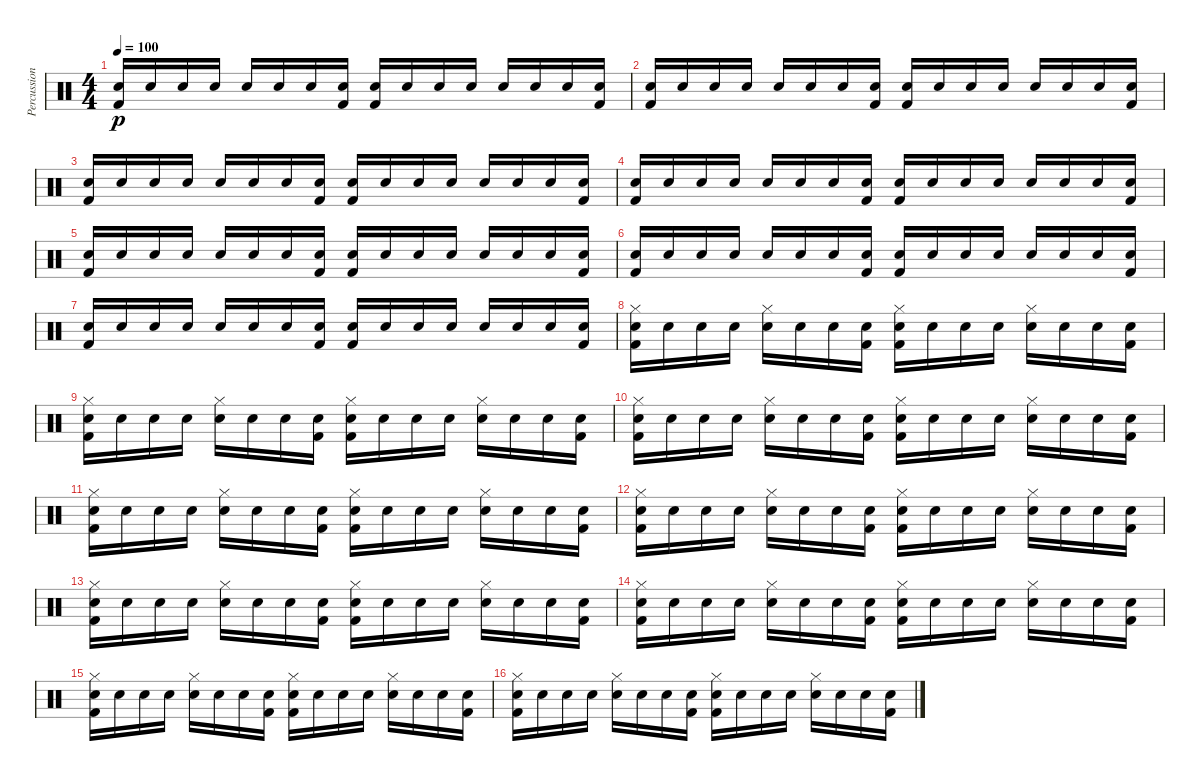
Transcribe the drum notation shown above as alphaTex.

\track ("Percussion" "Percussion") {instrument percussion}
\staff {score}
\articulation defaults
\ts (4 4)
\tempo 100
\clef neutral
\ks c
("Snare (hit) 2" "Kick (hit) 2").16{dy p} "Snare (hit) 2".16 "Snare (hit) 2".16 "Snare (hit) 2".16 "Snare (hit) 2".16 "Snare (hit) 2".16 "Snare (hit) 2".16 ("Snare (hit) 2" "Kick (hit) 2").16 ("Snare (hit) 2" "Kick (hit) 2").16 "Snare (hit) 2".16 "Snare (hit) 2".16 "Snare (hit) 2".16 "Snare (hit) 2".16 "Snare (hit) 2".16 "Snare (hit) 2".16 ("Snare (hit) 2" "Kick (hit) 2").16 |
("Snare (hit) 2" "Kick (hit) 2").16 "Snare (hit) 2".16 "Snare (hit) 2".16 "Snare (hit) 2".16 "Snare (hit) 2".16 "Snare (hit) 2".16 "Snare (hit) 2".16 ("Snare (hit) 2" "Kick (hit) 2").16 ("Snare (hit) 2" "Kick (hit) 2").16 "Snare (hit) 2".16 "Snare (hit) 2".16 "Snare (hit) 2".16 "Snare (hit) 2".16 "Snare (hit) 2".16 "Snare (hit) 2".16 ("Snare (hit) 2" "Kick (hit) 2").16 |
("Snare (hit) 2" "Kick (hit) 2").16 "Snare (hit) 2".16 "Snare (hit) 2".16 "Snare (hit) 2".16 "Snare (hit) 2".16 "Snare (hit) 2".16 "Snare (hit) 2".16 ("Snare (hit) 2" "Kick (hit) 2").16 ("Snare (hit) 2" "Kick (hit) 2").16 "Snare (hit) 2".16 "Snare (hit) 2".16 "Snare (hit) 2".16 "Snare (hit) 2".16 "Snare (hit) 2".16 "Snare (hit) 2".16 ("Snare (hit) 2" "Kick (hit) 2").16 |
("Snare (hit) 2" "Kick (hit) 2").16 "Snare (hit) 2".16 "Snare (hit) 2".16 "Snare (hit) 2".16 "Snare (hit) 2".16 "Snare (hit) 2".16 "Snare (hit) 2".16 ("Snare (hit) 2" "Kick (hit) 2").16 ("Snare (hit) 2" "Kick (hit) 2").16 "Snare (hit) 2".16 "Snare (hit) 2".16 "Snare (hit) 2".16 "Snare (hit) 2".16 "Snare (hit) 2".16 "Snare (hit) 2".16 ("Snare (hit) 2" "Kick (hit) 2").16 |
("Snare (hit) 2" "Kick (hit) 2").16 "Snare (hit) 2".16 "Snare (hit) 2".16 "Snare (hit) 2".16 "Snare (hit) 2".16 "Snare (hit) 2".16 "Snare (hit) 2".16 ("Snare (hit) 2" "Kick (hit) 2").16 ("Snare (hit) 2" "Kick (hit) 2").16 "Snare (hit) 2".16 "Snare (hit) 2".16 "Snare (hit) 2".16 "Snare (hit) 2".16 "Snare (hit) 2".16 "Snare (hit) 2".16 ("Snare (hit) 2" "Kick (hit) 2").16 |
("Snare (hit) 2" "Kick (hit) 2").16 "Snare (hit) 2".16 "Snare (hit) 2".16 "Snare (hit) 2".16 "Snare (hit) 2".16 "Snare (hit) 2".16 "Snare (hit) 2".16 ("Snare (hit) 2" "Kick (hit) 2").16 ("Snare (hit) 2" "Kick (hit) 2").16 "Snare (hit) 2".16 "Snare (hit) 2".16 "Snare (hit) 2".16 "Snare (hit) 2".16 "Snare (hit) 2".16 "Snare (hit) 2".16 ("Snare (hit) 2" "Kick (hit) 2").16 |
("Snare (hit) 2" "Kick (hit) 2").16 "Snare (hit) 2".16 "Snare (hit) 2".16 "Snare (hit) 2".16 "Snare (hit) 2".16 "Snare (hit) 2".16 "Snare (hit) 2".16 ("Snare (hit) 2" "Kick (hit) 2").16 ("Snare (hit) 2" "Kick (hit) 2").16 "Snare (hit) 2".16 "Snare (hit) 2".16 "Snare (hit) 2".16 "Snare (hit) 2".16 "Snare (hit) 2".16 "Snare (hit) 2".16 ("Snare (hit) 2" "Kick (hit) 2").16 |
("Hi-Hat (closed)" "Snare (hit) 2" "Kick (hit) 2").16 "Snare (hit) 2".16 "Snare (hit) 2".16 "Snare (hit) 2".16 ("Hi-Hat (closed)" "Snare (hit) 2").16 "Snare (hit) 2".16 "Snare (hit) 2".16 ("Snare (hit) 2" "Kick (hit) 2").16 ("Hi-Hat (closed)" "Snare (hit) 2" "Kick (hit) 2").16 "Snare (hit) 2".16 "Snare (hit) 2".16 "Snare (hit) 2".16 ("Hi-Hat (closed)" "Snare (hit) 2").16 "Snare (hit) 2".16 "Snare (hit) 2".16 ("Snare (hit) 2" "Kick (hit) 2").16 |
("Hi-Hat (closed)" "Snare (hit) 2" "Kick (hit) 2").16 "Snare (hit) 2".16 "Snare (hit) 2".16 "Snare (hit) 2".16 ("Hi-Hat (closed)" "Snare (hit) 2").16 "Snare (hit) 2".16 "Snare (hit) 2".16 ("Snare (hit) 2" "Kick (hit) 2").16 ("Hi-Hat (closed)" "Snare (hit) 2" "Kick (hit) 2").16 "Snare (hit) 2".16 "Snare (hit) 2".16 "Snare (hit) 2".16 ("Hi-Hat (closed)" "Snare (hit) 2").16 "Snare (hit) 2".16 "Snare (hit) 2".16 ("Snare (hit) 2" "Kick (hit) 2").16 |
("Hi-Hat (closed)" "Snare (hit) 2" "Kick (hit) 2").16 "Snare (hit) 2".16 "Snare (hit) 2".16 "Snare (hit) 2".16 ("Hi-Hat (closed)" "Snare (hit) 2").16 "Snare (hit) 2".16 "Snare (hit) 2".16 ("Snare (hit) 2" "Kick (hit) 2").16 ("Hi-Hat (closed)" "Snare (hit) 2" "Kick (hit) 2").16 "Snare (hit) 2".16 "Snare (hit) 2".16 "Snare (hit) 2".16 ("Hi-Hat (closed)" "Snare (hit) 2").16 "Snare (hit) 2".16 "Snare (hit) 2".16 ("Snare (hit) 2" "Kick (hit) 2").16 |
("Hi-Hat (closed)" "Snare (hit) 2" "Kick (hit) 2").16 "Snare (hit) 2".16 "Snare (hit) 2".16 "Snare (hit) 2".16 ("Hi-Hat (closed)" "Snare (hit) 2").16 "Snare (hit) 2".16 "Snare (hit) 2".16 ("Snare (hit) 2" "Kick (hit) 2").16 ("Hi-Hat (closed)" "Snare (hit) 2" "Kick (hit) 2").16 "Snare (hit) 2".16 "Snare (hit) 2".16 "Snare (hit) 2".16 ("Hi-Hat (closed)" "Snare (hit) 2").16 "Snare (hit) 2".16 "Snare (hit) 2".16 ("Snare (hit) 2" "Kick (hit) 2").16 |
("Hi-Hat (closed)" "Snare (hit) 2" "Kick (hit) 2").16 "Snare (hit) 2".16 "Snare (hit) 2".16 "Snare (hit) 2".16 ("Hi-Hat (closed)" "Snare (hit) 2").16 "Snare (hit) 2".16 "Snare (hit) 2".16 ("Snare (hit) 2" "Kick (hit) 2").16 ("Hi-Hat (closed)" "Snare (hit) 2" "Kick (hit) 2").16 "Snare (hit) 2".16 "Snare (hit) 2".16 "Snare (hit) 2".16 ("Hi-Hat (closed)" "Snare (hit) 2").16 "Snare (hit) 2".16 "Snare (hit) 2".16 ("Snare (hit) 2" "Kick (hit) 2").16 |
("Hi-Hat (closed)" "Snare (hit) 2" "Kick (hit) 2").16 "Snare (hit) 2".16 "Snare (hit) 2".16 "Snare (hit) 2".16 ("Hi-Hat (closed)" "Snare (hit) 2").16 "Snare (hit) 2".16 "Snare (hit) 2".16 ("Snare (hit) 2" "Kick (hit) 2").16 ("Hi-Hat (closed)" "Snare (hit) 2" "Kick (hit) 2").16 "Snare (hit) 2".16 "Snare (hit) 2".16 "Snare (hit) 2".16 ("Hi-Hat (closed)" "Snare (hit) 2").16 "Snare (hit) 2".16 "Snare (hit) 2".16 ("Snare (hit) 2" "Kick (hit) 2").16 |
("Hi-Hat (closed)" "Snare (hit) 2" "Kick (hit) 2").16 "Snare (hit) 2".16 "Snare (hit) 2".16 "Snare (hit) 2".16 ("Hi-Hat (closed)" "Snare (hit) 2").16 "Snare (hit) 2".16 "Snare (hit) 2".16 ("Snare (hit) 2" "Kick (hit) 2").16 ("Hi-Hat (closed)" "Snare (hit) 2" "Kick (hit) 2").16 "Snare (hit) 2".16 "Snare (hit) 2".16 "Snare (hit) 2".16 ("Hi-Hat (closed)" "Snare (hit) 2").16 "Snare (hit) 2".16 "Snare (hit) 2".16 ("Snare (hit) 2" "Kick (hit) 2").16 |
("Hi-Hat (closed)" "Snare (hit) 2" "Kick (hit) 2").16 "Snare (hit) 2".16 "Snare (hit) 2".16 "Snare (hit) 2".16 ("Hi-Hat (closed)" "Snare (hit) 2").16 "Snare (hit) 2".16 "Snare (hit) 2".16 ("Snare (hit) 2" "Kick (hit) 2").16 ("Hi-Hat (closed)" "Snare (hit) 2" "Kick (hit) 2").16 "Snare (hit) 2".16 "Snare (hit) 2".16 "Snare (hit) 2".16 ("Hi-Hat (closed)" "Snare (hit) 2").16 "Snare (hit) 2".16 "Snare (hit) 2".16 ("Snare (hit) 2" "Kick (hit) 2").16 |
("Hi-Hat (closed)" "Snare (hit) 2" "Kick (hit) 2").16 "Snare (hit) 2".16 "Snare (hit) 2".16 "Snare (hit) 2".16 ("Hi-Hat (closed)" "Snare (hit) 2").16 "Snare (hit) 2".16 "Snare (hit) 2".16 ("Snare (hit) 2" "Kick (hit) 2").16 ("Hi-Hat (closed)" "Snare (hit) 2" "Kick (hit) 2").16 "Snare (hit) 2".16 "Snare (hit) 2".16 "Snare (hit) 2".16 ("Hi-Hat (closed)" "Snare (hit) 2").16 "Snare (hit) 2".16 "Snare (hit) 2".16 ("Snare (hit) 2" "Kick (hit) 2").16
